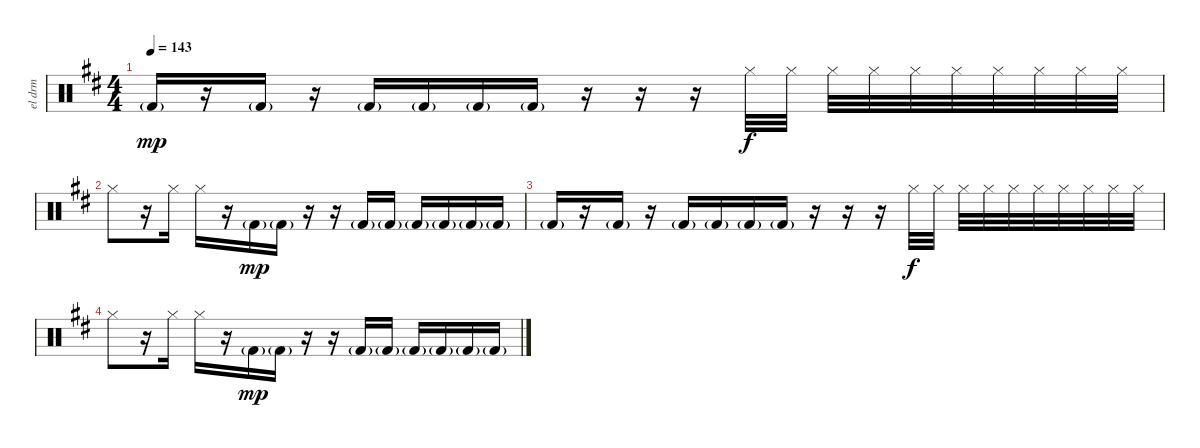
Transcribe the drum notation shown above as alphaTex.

\track ("el drm" "el drm") {instrument percussion}
\staff {score}
\articulation defaults
\ts (4 4)
\tempo 143
\clef neutral
\ks bminor "Kick (hit) 2"{g}.16{dy mp}
r.16 "Kick (hit) 2"{g}.16 r.16 "Kick (hit) 2"{g}.16 "Kick (hit) 2"{g}.16 "Kick (hit) 2"{g}.16 "Kick (hit) 2"{g}.16 r.16 r.16 r.16 "Hi-Hat (closed)".32{dy f} "Hi-Hat (closed)".32 "Hi-Hat (closed)".32 "Hi-Hat (closed)".32 "Hi-Hat (closed)".32 "Hi-Hat (closed)".32 "Hi-Hat (closed)".32 "Hi-Hat (closed)".32 "Hi-Hat (closed)".32 "Hi-Hat (closed)".32 |
"Hi-Hat (closed)".8 r.16 "Hi-Hat (closed)".16 "Hi-Hat (closed)".16 r.16 "Kick (hit) 2"{g}.16{dy mp} "Kick (hit) 2"{g}.16 r.16 r.16 "Kick (hit) 2"{g}.16 "Kick (hit) 2"{g}.16 "Kick (hit) 2"{g}.16 "Kick (hit) 2"{g}.16 "Kick (hit) 2"{g}.16 "Kick (hit) 2"{g}.16 |
"Kick (hit) 2"{g}.16 r.16 "Kick (hit) 2"{g}.16 r.16 "Kick (hit) 2"{g}.16 "Kick (hit) 2"{g}.16 "Kick (hit) 2"{g}.16 "Kick (hit) 2"{g}.16 r.16 r.16 r.16 "Hi-Hat (closed)".32{dy f} "Hi-Hat (closed)".32 "Hi-Hat (closed)".32 "Hi-Hat (closed)".32 "Hi-Hat (closed)".32 "Hi-Hat (closed)".32 "Hi-Hat (closed)".32 "Hi-Hat (closed)".32 "Hi-Hat (closed)".32 "Hi-Hat (closed)".32 |
"Hi-Hat (closed)".8 r.16 "Hi-Hat (closed)".16 "Hi-Hat (closed)".16 r.16 "Kick (hit) 2"{g}.16{dy mp} "Kick (hit) 2"{g}.16 r.16 r.16 "Kick (hit) 2"{g}.16 "Kick (hit) 2"{g}.16 "Kick (hit) 2"{g}.16 "Kick (hit) 2"{g}.16 "Kick (hit) 2"{g}.16 "Kick (hit) 2"{g}.16
